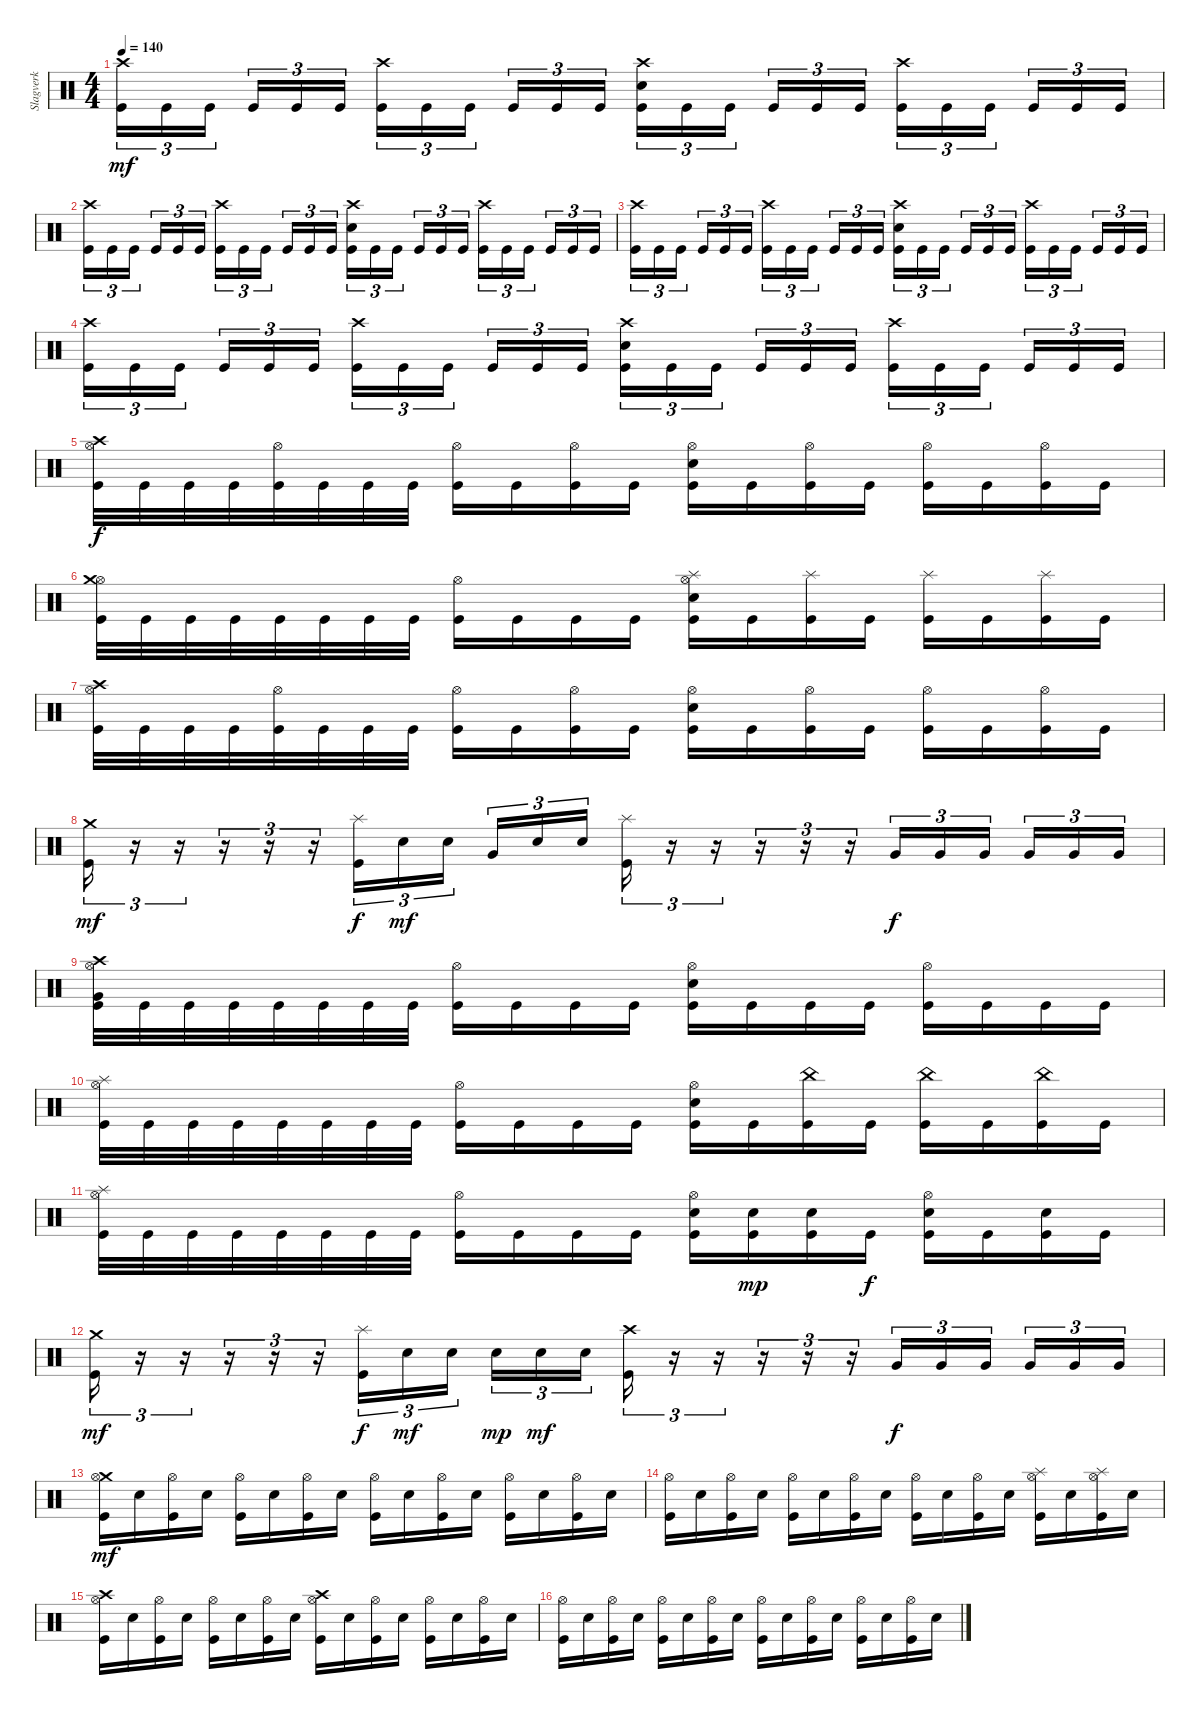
\track ("Slagverk" "Slagverk") {instrument percussion}
\staff {score}
\articulation defaults
\ts (4 4)
\tempo 140
\clef neutral
\ks c
("Crash high (hit)" "Kick (hit)").16{tu (3 2) dy mf} "Kick (hit)".16{tu (3 2)} "Kick (hit)".16{tu (3 2) beam splitsecondary} "Kick (hit)".16{tu (3 2)} "Kick (hit)".16{tu (3 2)} "Kick (hit)".16{tu (3 2)} ("Crash high (hit)" "Kick (hit)").16{tu (3 2)} "Kick (hit)".16{tu (3 2)} "Kick (hit)".16{tu (3 2) beam splitsecondary} "Kick (hit)".16{tu (3 2)} "Kick (hit)".16{tu (3 2)} "Kick (hit)".16{tu (3 2)} ("Crash high (hit)" "Electric Snare (hit)" "Kick (hit)").16{tu (3 2)} "Kick (hit)".16{tu (3 2)} "Kick (hit)".16{tu (3 2) beam splitsecondary} "Kick (hit)".16{tu (3 2)} "Kick (hit)".16{tu (3 2)} "Kick (hit)".16{tu (3 2)} ("Crash high (hit)" "Kick (hit)").16{tu (3 2)} "Kick (hit)".16{tu (3 2)} "Kick (hit)".16{tu (3 2) beam splitsecondary} "Kick (hit)".16{tu (3 2)} "Kick (hit)".16{tu (3 2)} "Kick (hit)".16{tu (3 2)} |
("Crash high (hit)" "Kick (hit)").16{tu (3 2)} "Kick (hit)".16{tu (3 2)} "Kick (hit)".16{tu (3 2) beam splitsecondary} "Kick (hit)".16{tu (3 2)} "Kick (hit)".16{tu (3 2)} "Kick (hit)".16{tu (3 2)} ("Crash high (hit)" "Kick (hit)").16{tu (3 2)} "Kick (hit)".16{tu (3 2)} "Kick (hit)".16{tu (3 2) beam splitsecondary} "Kick (hit)".16{tu (3 2)} "Kick (hit)".16{tu (3 2)} "Kick (hit)".16{tu (3 2)} ("Crash high (hit)" "Electric Snare (hit)" "Kick (hit)").16{tu (3 2)} "Kick (hit)".16{tu (3 2)} "Kick (hit)".16{tu (3 2) beam splitsecondary} "Kick (hit)".16{tu (3 2)} "Kick (hit)".16{tu (3 2)} "Kick (hit)".16{tu (3 2)} ("Crash high (hit)" "Kick (hit)").16{tu (3 2)} "Kick (hit)".16{tu (3 2)} "Kick (hit)".16{tu (3 2) beam splitsecondary} "Kick (hit)".16{tu (3 2)} "Kick (hit)".16{tu (3 2)} "Kick (hit)".16{tu (3 2)} |
("Crash high (hit)" "Kick (hit)").16{tu (3 2)} "Kick (hit)".16{tu (3 2)} "Kick (hit)".16{tu (3 2) beam splitsecondary} "Kick (hit)".16{tu (3 2)} "Kick (hit)".16{tu (3 2)} "Kick (hit)".16{tu (3 2)} ("Crash high (hit)" "Kick (hit)").16{tu (3 2)} "Kick (hit)".16{tu (3 2)} "Kick (hit)".16{tu (3 2) beam splitsecondary} "Kick (hit)".16{tu (3 2)} "Kick (hit)".16{tu (3 2)} "Kick (hit)".16{tu (3 2)} ("Crash high (hit)" "Electric Snare (hit)" "Kick (hit)").16{tu (3 2)} "Kick (hit)".16{tu (3 2)} "Kick (hit)".16{tu (3 2) beam splitsecondary} "Kick (hit)".16{tu (3 2)} "Kick (hit)".16{tu (3 2)} "Kick (hit)".16{tu (3 2)} ("Crash high (hit)" "Kick (hit)").16{tu (3 2)} "Kick (hit)".16{tu (3 2)} "Kick (hit)".16{tu (3 2) beam splitsecondary} "Kick (hit)".16{tu (3 2)} "Kick (hit)".16{tu (3 2)} "Kick (hit)".16{tu (3 2)} |
("Crash high (hit)" "Kick (hit)").16{tu (3 2)} "Kick (hit)".16{tu (3 2)} "Kick (hit)".16{tu (3 2) beam splitsecondary} "Kick (hit)".16{tu (3 2)} "Kick (hit)".16{tu (3 2)} "Kick (hit)".16{tu (3 2)} ("Crash high (hit)" "Kick (hit)").16{tu (3 2)} "Kick (hit)".16{tu (3 2)} "Kick (hit)".16{tu (3 2) beam splitsecondary} "Kick (hit)".16{tu (3 2)} "Kick (hit)".16{tu (3 2)} "Kick (hit)".16{tu (3 2)} ("Crash high (hit)" "Electric Snare (hit)" "Kick (hit)").16{tu (3 2)} "Kick (hit)".16{tu (3 2)} "Kick (hit)".16{tu (3 2) beam splitsecondary} "Kick (hit)".16{tu (3 2)} "Kick (hit)".16{tu (3 2)} "Kick (hit)".16{tu (3 2)} ("Crash high (hit)" "Kick (hit)").16{tu (3 2)} "Kick (hit)".16{tu (3 2)} "Kick (hit)".16{tu (3 2) beam splitsecondary} "Kick (hit)".16{tu (3 2)} "Kick (hit)".16{tu (3 2)} "Kick (hit)".16{tu (3 2)} |
("Hi-Hat (open)" "Crash high (hit)" "Kick (hit)").32{dy f} "Kick (hit)".32 "Kick (hit)".32 "Kick (hit)".32 ("Hi-Hat (open)" "Kick (hit)").32 "Kick (hit)".32 "Kick (hit)".32 "Kick (hit)".32 ("Hi-Hat (open)" "Kick (hit)").16 "Kick (hit)".16 ("Hi-Hat (open)" "Kick (hit)").16 "Kick (hit)".16 ("Hi-Hat (open)" "Electric Snare (hit)" "Kick (hit)").16 "Kick (hit)".16 ("Hi-Hat (open)" "Kick (hit)").16 "Kick (hit)".16 ("Hi-Hat (open)" "Kick (hit)").16 "Kick (hit)".16 ("Hi-Hat (open)" "Kick (hit)").16 "Kick (hit)".16 |
("Hi-Hat (open)" "Crash medium (hit)" "Kick (hit)").32 "Kick (hit)".32 "Kick (hit)".32 "Kick (hit)".32 "Kick (hit)".32 "Kick (hit)".32 "Kick (hit)".32 "Kick (hit)".32 ("Hi-Hat (open)" "Kick (hit)").16 "Kick (hit)".16 "Kick (hit)".16 "Kick (hit)".16 ("Hi-Hat (open)" "Splash (hit)" "Electric Snare (hit)" "Kick (hit)").16 "Kick (hit)".16 ("Splash (hit)" "Kick (hit)").16 "Kick (hit)".16 ("Splash (hit)" "Kick (hit)").16 "Kick (hit)".16 ("Splash (hit)" "Kick (hit)").16 "Kick (hit)".16 |
("Hi-Hat (open)" "Crash high (hit)" "Kick (hit)").32 "Kick (hit)".32 "Kick (hit)".32 "Kick (hit)".32 ("Hi-Hat (open)" "Kick (hit)").32 "Kick (hit)".32 "Kick (hit)".32 "Kick (hit)".32 ("Hi-Hat (open)" "Kick (hit)").16 "Kick (hit)".16 ("Hi-Hat (open)" "Kick (hit)").16 "Kick (hit)".16 ("Hi-Hat (open)" "Electric Snare (hit)" "Kick (hit)").16 "Kick (hit)".16 ("Hi-Hat (open)" "Kick (hit)").16 "Kick (hit)".16 ("Hi-Hat (open)" "Kick (hit)").16 "Kick (hit)".16 ("Hi-Hat (open)" "Kick (hit)").16 "Kick (hit)".16 |
("Crash medium (hit)" "Kick (hit)").16{tu (3 2) dy mf} r.16{tu (3 2)} r.16{tu (3 2)} r.16{tu (3 2)} r.16{tu (3 2)} r.16{tu (3 2)} ("Splash (hit)" "Kick (hit)").16{tu (3 2) dy f} "Electric Snare (hit)".16{tu (3 2) dy mf} "Electric Snare (hit)".16{tu (3 2) beam splitsecondary} "Very Low Tom (hit)".16{tu (3 2)} "Electric Snare (hit)".16{tu (3 2)} "Electric Snare (hit)".16{tu (3 2)} ("Splash (hit)" "Kick (hit)").16{tu (3 2)} r.16{tu (3 2)} r.16{tu (3 2)} r.16{tu (3 2)} r.16{tu (3 2)} r.16{tu (3 2)} "Very Low Tom (hit)".16{tu (3 2) dy f} "Very Low Tom (hit)".16{tu (3 2)} "Very Low Tom (hit)".16{tu (3 2) beam splitsecondary} "Very Low Tom (hit)".16{tu (3 2)} "Very Low Tom (hit)".16{tu (3 2)} "Very Low Tom (hit)".16{tu (3 2)} |
("Hi-Hat (open)" "Crash high (hit)" "Very Low Tom (hit)" "Kick (hit)").32 "Kick (hit)".32 "Kick (hit)".32 "Kick (hit)".32 "Kick (hit)".32 "Kick (hit)".32 "Kick (hit)".32 "Kick (hit)".32 ("Hi-Hat (open)" "Kick (hit)").16 "Kick (hit)".16 "Kick (hit)".16 "Kick (hit)".16 ("Hi-Hat (open)" "Electric Snare (hit)" "Kick (hit)").16 "Kick (hit)".16 "Kick (hit)".16 "Kick (hit)".16 ("Hi-Hat (open)" "Kick (hit)").16 "Kick (hit)".16 "Kick (hit)".16 "Kick (hit)".16 |
("Hi-Hat (open)" "Splash (hit)" "Kick (hit)").32 "Kick (hit)".32 "Kick (hit)".32 "Kick (hit)".32 "Kick (hit)".32 "Kick (hit)".32 "Kick (hit)".32 "Kick (hit)".32 ("Hi-Hat (open)" "Kick (hit)").16 "Kick (hit)".16 "Kick (hit)".16 "Kick (hit)".16 ("Hi-Hat (open)" "Electric Snare (hit)" "Kick (hit)").16 "Kick (hit)".16 ("China (hit)" "Kick (hit)").16 "Kick (hit)".16 ("China (hit)" "Kick (hit)").16 "Kick (hit)".16 ("China (hit)" "Kick (hit)").16 "Kick (hit)".16 |
("Hi-Hat (open)" "Splash (hit)" "Kick (hit)").32 "Kick (hit)".32 "Kick (hit)".32 "Kick (hit)".32 "Kick (hit)".32 "Kick (hit)".32 "Kick (hit)".32 "Kick (hit)".32 ("Hi-Hat (open)" "Kick (hit)").16 "Kick (hit)".16 "Kick (hit)".16 "Kick (hit)".16 ("Hi-Hat (open)" "Electric Snare (hit)" "Kick (hit)").16 ("Electric Snare (hit)" "Kick (hit)").16{dy mp} ("Electric Snare (hit)" "Kick (hit)").16 "Kick (hit)".16{dy f} ("Hi-Hat (open)" "Electric Snare (hit)" "Kick (hit)").16 "Kick (hit)".16 ("Electric Snare (hit)" "Kick (hit)").16 "Kick (hit)".16 |
("Crash medium (hit)" "Kick (hit)").16{tu (3 2) dy mf} r.16{tu (3 2)} r.16{tu (3 2)} r.16{tu (3 2)} r.16{tu (3 2)} r.16{tu (3 2)} ("Splash (hit)" "Kick (hit)").16{tu (3 2) dy f} "Electric Snare (hit)".16{tu (3 2) dy mf} "Electric Snare (hit)".16{tu (3 2) beam splitsecondary} "Electric Snare (hit)".16{tu (3 2) dy mp} "Electric Snare (hit)".16{tu (3 2) dy mf} "Electric Snare (hit)".16{tu (3 2)} ("Crash high (hit)" "Kick (hit)").16{tu (3 2)} r.16{tu (3 2)} r.16{tu (3 2)} r.16{tu (3 2)} r.16{tu (3 2)} r.16{tu (3 2)} "Very Low Tom (hit)".16{tu (3 2) dy f} "Very Low Tom (hit)".16{tu (3 2)} "Very Low Tom (hit)".16{tu (3 2) beam splitsecondary} "Very Low Tom (hit)".16{tu (3 2)} "Very Low Tom (hit)".16{tu (3 2)} "Very Low Tom (hit)".16{tu (3 2)} |
("Crash medium (hit)" "Hi-Hat (open)" "Kick (hit)").16{dy mf} "Electric Snare (hit)".16 ("Hi-Hat (open)" "Kick (hit)").16 "Electric Snare (hit)".16 ("Hi-Hat (open)" "Kick (hit)").16 "Electric Snare (hit)".16 ("Hi-Hat (open)" "Kick (hit)").16 "Electric Snare (hit)".16 ("Hi-Hat (open)" "Kick (hit)").16 "Electric Snare (hit)".16 ("Hi-Hat (open)" "Kick (hit)").16 "Electric Snare (hit)".16 ("Hi-Hat (open)" "Kick (hit)").16 "Electric Snare (hit)".16 ("Hi-Hat (open)" "Kick (hit)").16 "Electric Snare (hit)".16 |
("Hi-Hat (open)" "Kick (hit)").16 "Electric Snare (hit)".16 ("Hi-Hat (open)" "Kick (hit)").16 "Electric Snare (hit)".16 ("Hi-Hat (open)" "Kick (hit)").16 "Electric Snare (hit)".16 ("Hi-Hat (open)" "Kick (hit)").16 "Electric Snare (hit)".16 ("Hi-Hat (open)" "Kick (hit)").16 "Electric Snare (hit)".16 ("Hi-Hat (open)" "Kick (hit)").16 "Electric Snare (hit)".16 ("Splash (hit)" "Hi-Hat (open)" "Kick (hit)").16 "Electric Snare (hit)".16 ("Splash (hit)" "Hi-Hat (open)" "Kick (hit)").16 "Electric Snare (hit)".16 |
("Crash high (hit)" "Hi-Hat (open)" "Kick (hit)").16 "Electric Snare (hit)".16 ("Hi-Hat (open)" "Kick (hit)").16 "Electric Snare (hit)".16 ("Hi-Hat (open)" "Kick (hit)").16 "Electric Snare (hit)".16 ("Hi-Hat (open)" "Kick (hit)").16 "Electric Snare (hit)".16 ("Crash high (hit)" "Hi-Hat (open)" "Kick (hit)").16 "Electric Snare (hit)".16 ("Hi-Hat (open)" "Kick (hit)").16 "Electric Snare (hit)".16 ("Hi-Hat (open)" "Kick (hit)").16 "Electric Snare (hit)".16 ("Hi-Hat (open)" "Kick (hit)").16 "Electric Snare (hit)".16 |
("Hi-Hat (open)" "Kick (hit)").16 "Electric Snare (hit)".16 ("Hi-Hat (open)" "Kick (hit)").16 "Electric Snare (hit)".16 ("Hi-Hat (open)" "Kick (hit)").16 "Electric Snare (hit)".16 ("Hi-Hat (open)" "Kick (hit)").16 "Electric Snare (hit)".16 ("Hi-Hat (open)" "Kick (hit)").16 "Electric Snare (hit)".16 ("Hi-Hat (open)" "Kick (hit)").16 "Electric Snare (hit)".16 ("Hi-Hat (open)" "Kick (hit)").16 "Electric Snare (hit)".16 ("Hi-Hat (open)" "Kick (hit)").16 "Electric Snare (hit)".16
